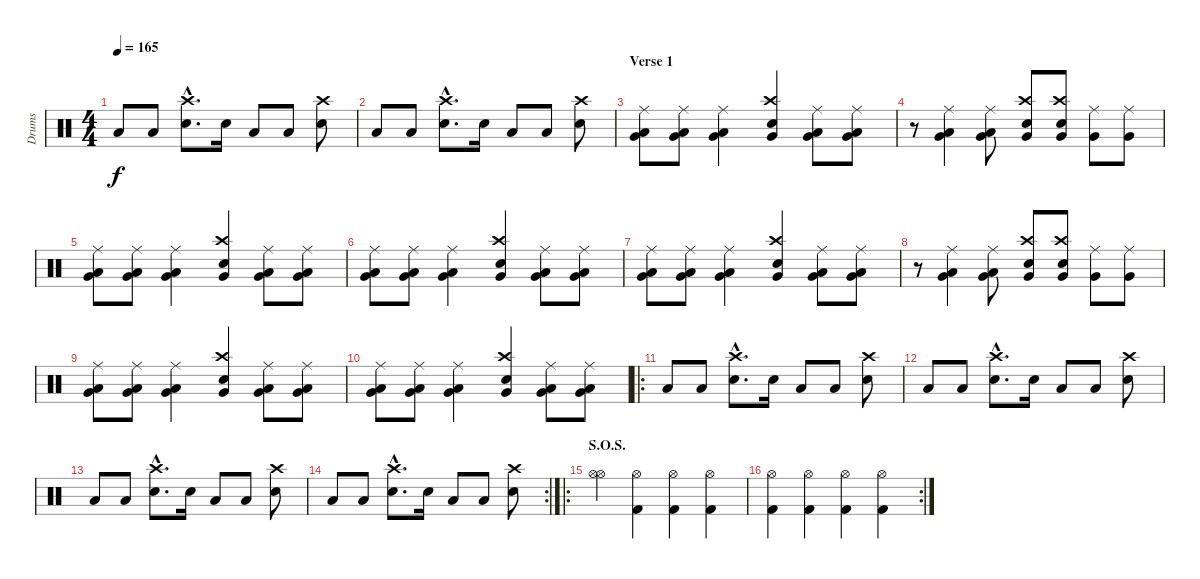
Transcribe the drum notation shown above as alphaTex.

\track ("Drums" "Drums") {instrument percussion}
\staff {score}
\articulation defaults
\ts (4 4)
\tempo 165
\clef neutral
\ks c "Low Tom (hit)".8{dy f} "Low Tom (hit)".8
("Electric Snare (hit)"{hac} "Crash high (hit)"{hac}).8{d} "Electric Snare (hit)".16 "Low Tom (hit)".8 "Low Tom (hit)".8 ("Electric Snare (hit)" "Crash high (hit)").8 |
"Low Tom (hit)".8 "Low Tom (hit)".8 ("Electric Snare (hit)"{hac} "Crash high (hit)"{hac}).8{d} "Electric Snare (hit)".16 "Low Tom (hit)".8 "Low Tom (hit)".8 ("Electric Snare (hit)" "Crash high (hit)").8 |
\section ("" "Verse 1")
("Ride (middle)" "Low Floor Tom (hit)" "Very Low Tom (hit)").8 ("Ride (middle)" "Low Floor Tom (hit)" "Very Low Tom (hit)").8 ("Ride (middle)" "Low Floor Tom (hit)" "Very Low Tom (hit)").4 ("Crash high (hit)" "Very Low Tom (hit)" "Electric Snare (hit)").4 ("Ride (middle)" "Low Floor Tom (hit)" "Very Low Tom (hit)").8 ("Ride (middle)" "Low Floor Tom (hit)" "Very Low Tom (hit)").8 |
r.8 ("Ride (middle)" "Low Floor Tom (hit)" "Very Low Tom (hit)").4 ("Ride (middle)" "Low Floor Tom (hit)" "Very Low Tom (hit)").8 ("Crash high (hit)" "Very Low Tom (hit)" "Electric Snare (hit)").8 ("Crash high (hit)" "Very Low Tom (hit)" "Electric Snare (hit)").8 ("Ride (middle)" "Very Low Tom (hit)").8 ("Ride (middle)" "Very Low Tom (hit)").8 |
("Ride (middle)" "Low Floor Tom (hit)" "Very Low Tom (hit)").8 ("Ride (middle)" "Low Floor Tom (hit)" "Very Low Tom (hit)").8 ("Ride (middle)" "Low Floor Tom (hit)" "Very Low Tom (hit)").4 ("Crash high (hit)" "Very Low Tom (hit)" "Electric Snare (hit)").4 ("Ride (middle)" "Low Floor Tom (hit)" "Very Low Tom (hit)").8 ("Ride (middle)" "Low Floor Tom (hit)" "Very Low Tom (hit)").8 |
("Ride (middle)" "Low Floor Tom (hit)" "Very Low Tom (hit)").8 ("Ride (middle)" "Low Floor Tom (hit)" "Very Low Tom (hit)").8 ("Ride (middle)" "Low Floor Tom (hit)" "Very Low Tom (hit)").4 ("Crash high (hit)" "Very Low Tom (hit)" "Electric Snare (hit)").4 ("Ride (middle)" "Low Floor Tom (hit)" "Very Low Tom (hit)").8 ("Ride (middle)" "Low Floor Tom (hit)" "Very Low Tom (hit)").8 |
("Ride (middle)" "Low Floor Tom (hit)" "Very Low Tom (hit)").8 ("Ride (middle)" "Low Floor Tom (hit)" "Very Low Tom (hit)").8 ("Ride (middle)" "Low Floor Tom (hit)" "Very Low Tom (hit)").4 ("Crash high (hit)" "Very Low Tom (hit)" "Electric Snare (hit)").4 ("Ride (middle)" "Low Floor Tom (hit)" "Very Low Tom (hit)").8 ("Ride (middle)" "Low Floor Tom (hit)" "Very Low Tom (hit)").8 |
r.8 ("Ride (middle)" "Low Floor Tom (hit)" "Very Low Tom (hit)").4 ("Ride (middle)" "Low Floor Tom (hit)" "Very Low Tom (hit)").8 ("Crash high (hit)" "Very Low Tom (hit)" "Electric Snare (hit)").8 ("Crash high (hit)" "Very Low Tom (hit)" "Electric Snare (hit)").8 ("Ride (middle)" "Very Low Tom (hit)").8 ("Ride (middle)" "Very Low Tom (hit)").8 |
("Ride (middle)" "Low Floor Tom (hit)" "Very Low Tom (hit)").8 ("Ride (middle)" "Low Floor Tom (hit)" "Very Low Tom (hit)").8 ("Ride (middle)" "Low Floor Tom (hit)" "Very Low Tom (hit)").4 ("Crash high (hit)" "Very Low Tom (hit)" "Electric Snare (hit)").4 ("Ride (middle)" "Low Floor Tom (hit)" "Very Low Tom (hit)").8 ("Ride (middle)" "Low Floor Tom (hit)" "Very Low Tom (hit)").8 |
("Ride (middle)" "Low Floor Tom (hit)" "Very Low Tom (hit)").8 ("Ride (middle)" "Low Floor Tom (hit)" "Very Low Tom (hit)").8 ("Ride (middle)" "Low Floor Tom (hit)" "Very Low Tom (hit)").4 ("Crash high (hit)" "Very Low Tom (hit)" "Electric Snare (hit)").4 ("Ride (middle)" "Low Floor Tom (hit)" "Very Low Tom (hit)").8 ("Ride (middle)" "Low Floor Tom (hit)" "Very Low Tom (hit)").8 |
\ro "Low Tom (hit)".8 "Low Tom (hit)".8
("Electric Snare (hit)"{hac} "Crash high (hit)"{hac}).8{d} "Electric Snare (hit)".16 "Low Tom (hit)".8 "Low Tom (hit)".8 ("Electric Snare (hit)" "Crash high (hit)").8 |
"Low Tom (hit)".8 "Low Tom (hit)".8 ("Electric Snare (hit)"{hac} "Crash high (hit)"{hac}).8{d} "Electric Snare (hit)".16 "Low Tom (hit)".8 "Low Tom (hit)".8 ("Electric Snare (hit)" "Crash high (hit)").8 |
"Low Tom (hit)".8 "Low Tom (hit)".8 ("Electric Snare (hit)"{hac} "Crash high (hit)"{hac}).8{d} "Electric Snare (hit)".16 "Low Tom (hit)".8 "Low Tom (hit)".8 ("Electric Snare (hit)" "Crash high (hit)").8 |
\rc 2 "Low Tom (hit)".8 "Low Tom (hit)".8
("Electric Snare (hit)"{hac} "Crash high (hit)"{hac}).8{d} "Electric Snare (hit)".16 "Low Tom (hit)".8 "Low Tom (hit)".8 ("Electric Snare (hit)" "Crash high (hit)").8 |
\ro
\section ("" "S.O.S.")
("Hi-Hat (open)" "Hi-Hat (open)").4 ("Hi-Hat (open)" "Kick (hit) 2").4 ("Hi-Hat (open)" "Kick (hit) 2").4 ("Hi-Hat (open)" "Kick (hit) 2").4 |
\rc 2
("Hi-Hat (open)" "Kick (hit) 2").4 ("Hi-Hat (open)" "Kick (hit) 2").4 ("Hi-Hat (open)" "Kick (hit) 2").4 ("Hi-Hat (open)" "Kick (hit) 2").4
